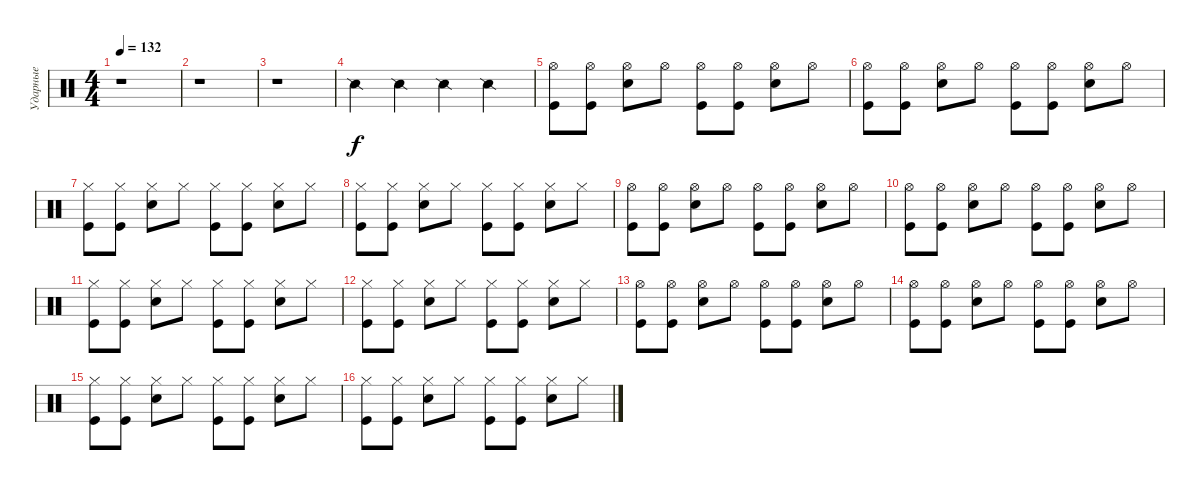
\track ("Ударные" "Ударные") {instrument percussion}
\staff {score}
\articulation defaults
\ts (4 4)
\tempo 132
\clef neutral
\ks c
r.1{dy f} |
r.1 |
r.1 |
"Snare (side stick) 2".4{volume 4 balance 16} "Snare (side stick) 2".4 "Snare (side stick) 2".4 "Snare (side stick) 2".4 |
("Hi-Hat (open)" "Kick (hit)").8{volume 13 balance 8} ("Hi-Hat (open)" "Kick (hit)").8 ("Hi-Hat (open)" "Snare (hit) 2").8 "Hi-Hat (open)".8 ("Hi-Hat (open)" "Kick (hit)").8 ("Hi-Hat (open)" "Kick (hit)").8 ("Hi-Hat (open)" "Snare (hit) 2").8 "Hi-Hat (open)".8 |
("Hi-Hat (open)" "Kick (hit)").8 ("Hi-Hat (open)" "Kick (hit)").8 ("Hi-Hat (open)" "Snare (hit) 2").8 "Hi-Hat (open)".8 ("Hi-Hat (open)" "Kick (hit)").8 ("Hi-Hat (open)" "Kick (hit)").8 ("Hi-Hat (open)" "Snare (hit) 2").8 "Hi-Hat (open)".8 |
("Hi-Hat (closed)" "Kick (hit)").8 ("Hi-Hat (closed)" "Kick (hit)").8 ("Hi-Hat (closed)" "Snare (hit) 2").8 "Hi-Hat (closed)".8 ("Hi-Hat (closed)" "Kick (hit)").8 ("Hi-Hat (closed)" "Kick (hit)").8 ("Hi-Hat (closed)" "Snare (hit) 2").8 "Hi-Hat (closed)".8 |
("Hi-Hat (closed)" "Kick (hit)").8 ("Hi-Hat (closed)" "Kick (hit)").8 ("Hi-Hat (closed)" "Snare (hit) 2").8 "Hi-Hat (closed)".8 ("Hi-Hat (closed)" "Kick (hit)").8 ("Hi-Hat (closed)" "Kick (hit)").8 ("Hi-Hat (closed)" "Snare (hit) 2").8 "Hi-Hat (closed)".8 |
("Hi-Hat (open)" "Kick (hit)").8 ("Hi-Hat (open)" "Kick (hit)").8 ("Hi-Hat (open)" "Snare (hit) 2").8 "Hi-Hat (open)".8 ("Hi-Hat (open)" "Kick (hit)").8 ("Hi-Hat (open)" "Kick (hit)").8 ("Hi-Hat (open)" "Snare (hit) 2").8 "Hi-Hat (open)".8 |
("Hi-Hat (open)" "Kick (hit)").8 ("Hi-Hat (open)" "Kick (hit)").8 ("Hi-Hat (open)" "Snare (hit) 2").8 "Hi-Hat (open)".8 ("Hi-Hat (open)" "Kick (hit)").8 ("Hi-Hat (open)" "Kick (hit)").8 ("Hi-Hat (open)" "Snare (hit) 2").8 "Hi-Hat (open)".8 |
("Hi-Hat (closed)" "Kick (hit)").8 ("Hi-Hat (closed)" "Kick (hit)").8 ("Hi-Hat (closed)" "Snare (hit) 2").8 "Hi-Hat (closed)".8 ("Hi-Hat (closed)" "Kick (hit)").8 ("Hi-Hat (closed)" "Kick (hit)").8 ("Hi-Hat (closed)" "Snare (hit) 2").8 "Hi-Hat (closed)".8 |
("Hi-Hat (closed)" "Kick (hit)").8 ("Hi-Hat (closed)" "Kick (hit)").8 ("Hi-Hat (closed)" "Snare (hit) 2").8 "Hi-Hat (closed)".8 ("Hi-Hat (closed)" "Kick (hit)").8 ("Hi-Hat (closed)" "Kick (hit)").8 ("Hi-Hat (closed)" "Snare (hit) 2").8 "Hi-Hat (closed)".8 |
("Hi-Hat (open)" "Kick (hit)").8 ("Hi-Hat (open)" "Kick (hit)").8 ("Hi-Hat (open)" "Snare (hit) 2").8 "Hi-Hat (open)".8 ("Hi-Hat (open)" "Kick (hit)").8 ("Hi-Hat (open)" "Kick (hit)").8 ("Hi-Hat (open)" "Snare (hit) 2").8 "Hi-Hat (open)".8 |
("Hi-Hat (open)" "Kick (hit)").8 ("Hi-Hat (open)" "Kick (hit)").8 ("Hi-Hat (open)" "Snare (hit) 2").8 "Hi-Hat (open)".8 ("Hi-Hat (open)" "Kick (hit)").8 ("Hi-Hat (open)" "Kick (hit)").8 ("Hi-Hat (open)" "Snare (hit) 2").8 "Hi-Hat (open)".8 |
("Hi-Hat (closed)" "Kick (hit)").8 ("Hi-Hat (closed)" "Kick (hit)").8 ("Hi-Hat (closed)" "Snare (hit) 2").8 "Hi-Hat (closed)".8 ("Hi-Hat (closed)" "Kick (hit)").8 ("Hi-Hat (closed)" "Kick (hit)").8 ("Hi-Hat (closed)" "Snare (hit) 2").8 "Hi-Hat (closed)".8 |
("Hi-Hat (closed)" "Kick (hit)").8 ("Hi-Hat (closed)" "Kick (hit)").8 ("Hi-Hat (closed)" "Snare (hit) 2").8 "Hi-Hat (closed)".8 ("Hi-Hat (closed)" "Kick (hit)").8 ("Hi-Hat (closed)" "Kick (hit)").8 ("Hi-Hat (closed)" "Snare (hit) 2").8 "Hi-Hat (closed)".8
